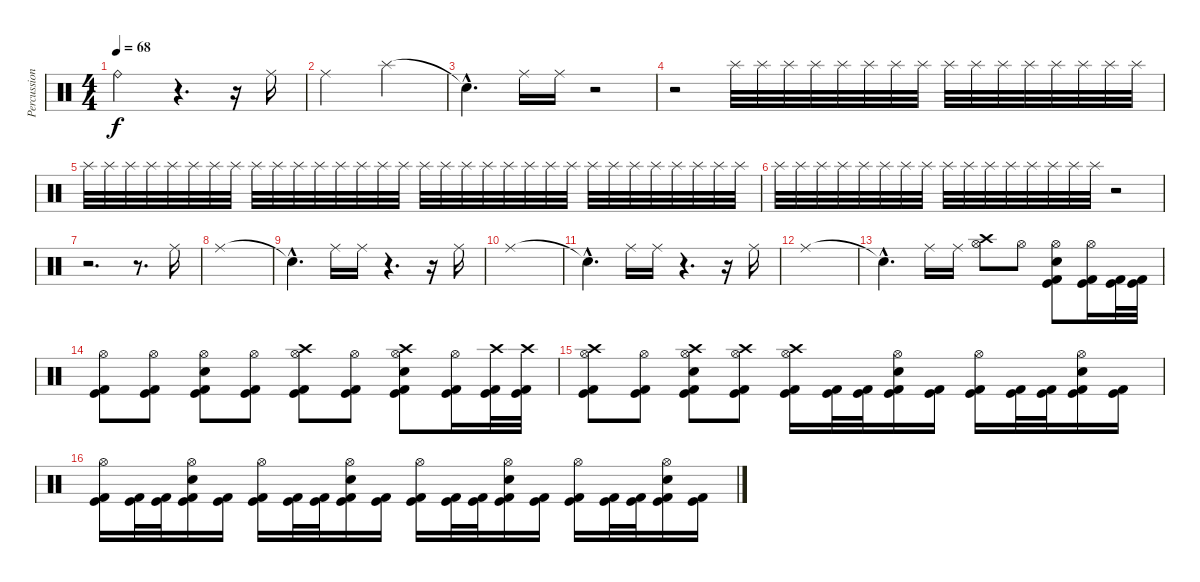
\track ("Percussion" "Percussion") {instrument percussion}
\staff {score}
\articulation defaults
\ts (4 4)
\tempo 68
\clef neutral
\ks c "Ride (bell)".2{dy f}
r.4{d} r.16 "Ride (middle)".16 |
"Ride (middle)".2 "Splash (hit)".2 |
"Snare (hit)"{hac t}.4{d} "Ride (middle)".16 "Ride (middle)".16 r.2 |
r.2 "Splash (hit)".32{volume 0} "Splash (hit)".32{volume 13} "Splash (hit)".32 "Splash (hit)".32 "Splash (hit)".32 "Splash (hit)".32 "Splash (hit)".32 "Splash (hit)".32 "Splash (hit)".32 "Splash (hit)".32 "Splash (hit)".32 "Splash (hit)".32 "Splash (hit)".32 "Splash (hit)".32 "Splash (hit)".32 "Splash (hit)".32 |
"Splash (hit)".32 "Splash (hit)".32 "Splash (hit)".32 "Splash (hit)".32 "Splash (hit)".32 "Splash (hit)".32 "Splash (hit)".32 "Splash (hit)".32 "Splash (hit)".32 "Splash (hit)".32 "Splash (hit)".32 "Splash (hit)".32 "Splash (hit)".32 "Splash (hit)".32 "Splash (hit)".32 "Splash (hit)".32 "Splash (hit)".32 "Splash (hit)".32 "Splash (hit)".32 "Splash (hit)".32 "Splash (hit)".32 "Splash (hit)".32 "Splash (hit)".32 "Splash (hit)".32 "Splash (hit)".32 "Splash (hit)".32 "Splash (hit)".32 "Splash (hit)".32 "Splash (hit)".32 "Splash (hit)".32 "Splash (hit)".32 "Splash (hit)".32 |
"Splash (hit)".32 "Splash (hit)".32 "Splash (hit)".32 "Splash (hit)".32 "Splash (hit)".32 "Splash (hit)".32 "Splash (hit)".32 "Splash (hit)".32 "Splash (hit)".32 "Splash (hit)".32 "Splash (hit)".32 "Splash (hit)".32 "Splash (hit)".32 "Splash (hit)".32 "Splash (hit)".32 "Splash (hit)".32 r.2 |
r.2{d} r.8{d} "Ride (middle)".16 |
"Ride (middle)".1 |
"Snare (hit)"{hac t}.4{d} "Ride (middle)".16 "Ride (middle)".16 r.4{d} r.16 "Ride (middle)".16 |
"Ride (middle)".1 |
"Snare (hit)"{hac t}.4{d} "Ride (middle)".16 "Ride (middle)".16 r.4{d} r.16 "Ride (middle)".16 |
"Ride (middle)".1 |
\section ("" "")
"Snare (hit)"{hac t}.4{d} "Ride (middle)".16 "Ride (middle)".16 ("Hi-Hat (open)" "Crash high (hit)").8 "Hi-Hat (open)".8 ("Kick (hit)" "Kick (hit) 2" "Snare (hit) 2" "Hi-Hat (open)").8 ("Kick (hit)" "Kick (hit) 2" "Hi-Hat (open)").16 ("Kick (hit)" "Kick (hit) 2").32 ("Kick (hit)" "Kick (hit) 2").32 |
("Kick (hit)" "Kick (hit) 2" "Hi-Hat (open)").8 ("Kick (hit)" "Kick (hit) 2" "Hi-Hat (open)").8 ("Kick (hit)" "Kick (hit) 2" "Snare (hit) 2" "Hi-Hat (open)").8 ("Kick (hit)" "Kick (hit) 2" "Hi-Hat (open)").8 ("Kick (hit)" "Kick (hit) 2" "Hi-Hat (open)" "Crash high (hit)").8 ("Kick (hit)" "Kick (hit) 2" "Hi-Hat (open)").8 ("Kick (hit)" "Kick (hit) 2" "Snare (hit) 2" "Hi-Hat (open)" "Crash high (hit)").8 ("Kick (hit)" "Kick (hit) 2" "Hi-Hat (open)").16 ("Kick (hit)" "Kick (hit) 2" "Crash high (hit)").32 ("Kick (hit)" "Kick (hit) 2" "Crash high (hit)").32 |
("Kick (hit)" "Kick (hit) 2" "Hi-Hat (open)" "Crash high (hit)").8 ("Kick (hit)" "Kick (hit) 2" "Hi-Hat (open)").8 ("Kick (hit)" "Kick (hit) 2" "Snare (hit) 2" "Hi-Hat (open)" "Crash high (hit)").8 ("Kick (hit)" "Kick (hit) 2" "Hi-Hat (open)" "Crash high (hit)").8 ("Kick (hit)" "Kick (hit) 2" "Hi-Hat (open)" "Crash high (hit)").16 ("Kick (hit)" "Kick (hit) 2").32 ("Kick (hit)" "Kick (hit) 2").32 ("Kick (hit)" "Kick (hit) 2" "Snare (hit) 2" "Hi-Hat (open)").16 ("Kick (hit)" "Kick (hit) 2").16 ("Kick (hit)" "Kick (hit) 2" "Hi-Hat (open)").16 ("Kick (hit)" "Kick (hit) 2").32 ("Kick (hit)" "Kick (hit) 2").32 ("Kick (hit)" "Kick (hit) 2" "Snare (hit) 2" "Hi-Hat (open)").16 ("Kick (hit)" "Kick (hit) 2").16 |
("Kick (hit)" "Kick (hit) 2" "Hi-Hat (open)").16 ("Kick (hit)" "Kick (hit) 2").32 ("Kick (hit)" "Kick (hit) 2").32 ("Kick (hit)" "Kick (hit) 2" "Snare (hit) 2" "Hi-Hat (open)").16 ("Kick (hit)" "Kick (hit) 2").16 ("Kick (hit)" "Kick (hit) 2" "Hi-Hat (open)").16 ("Kick (hit)" "Kick (hit) 2").32 ("Kick (hit)" "Kick (hit) 2").32 ("Kick (hit)" "Kick (hit) 2" "Snare (hit) 2" "Hi-Hat (open)").16 ("Kick (hit)" "Kick (hit) 2").16 ("Kick (hit)" "Kick (hit) 2" "Hi-Hat (open)").16 ("Kick (hit)" "Kick (hit) 2").32 ("Kick (hit)" "Kick (hit) 2").32 ("Kick (hit)" "Kick (hit) 2" "Snare (hit) 2" "Hi-Hat (open)").16 ("Kick (hit)" "Kick (hit) 2").16 ("Kick (hit)" "Kick (hit) 2" "Hi-Hat (open)").16 ("Kick (hit)" "Kick (hit) 2").32 ("Kick (hit)" "Kick (hit) 2").32 ("Kick (hit)" "Kick (hit) 2" "Snare (hit) 2" "Hi-Hat (open)").16 ("Kick (hit)" "Kick (hit) 2").16
